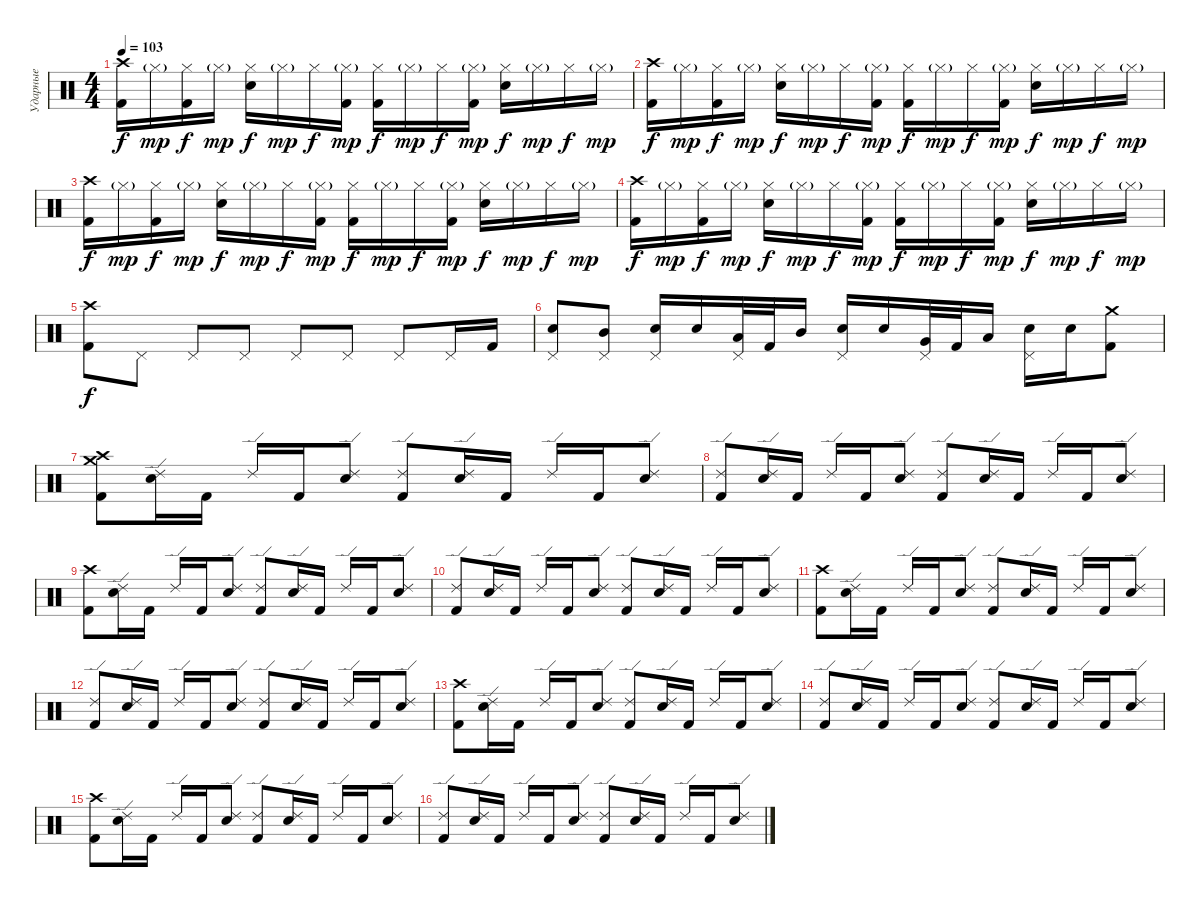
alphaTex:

\track ("Ударные" "Ударные") {instrument percussion}
\staff {score}
\articulation defaults
\ts (4 4)
\tempo 103
\clef neutral
\ks c
("Kick (hit) 2" "Crash high (hit)").16{dy f} "Hi-Hat (closed)"{g}.16{dy mp} ("Kick (hit) 2" "Hi-Hat (closed)").16{dy f} "Hi-Hat (closed)"{g}.16{dy mp} ("Electric Snare (hit)" "Hi-Hat (closed)").16{dy f} "Hi-Hat (closed)"{g}.16{dy mp} "Hi-Hat (closed)".16{dy f} ("Kick (hit) 2" "Hi-Hat (closed)"{g}).16{dy mp} ("Kick (hit) 2" "Hi-Hat (closed)").16{dy f} "Hi-Hat (closed)"{g}.16{dy mp} "Hi-Hat (closed)".16{dy f} ("Kick (hit) 2" "Hi-Hat (closed)"{g}).16{dy mp} ("Electric Snare (hit)" "Hi-Hat (closed)").16{dy f} "Hi-Hat (closed)"{g}.16{dy mp} "Hi-Hat (closed)".16{dy f} "Hi-Hat (closed)"{g}.16{dy mp} |
("Kick (hit) 2" "Crash high (hit)").16{dy f} "Hi-Hat (closed)"{g}.16{dy mp} ("Kick (hit) 2" "Hi-Hat (closed)").16{dy f} "Hi-Hat (closed)"{g}.16{dy mp} ("Electric Snare (hit)" "Hi-Hat (closed)").16{dy f} "Hi-Hat (closed)"{g}.16{dy mp} "Hi-Hat (closed)".16{dy f} ("Kick (hit) 2" "Hi-Hat (closed)"{g}).16{dy mp} ("Kick (hit) 2" "Hi-Hat (closed)").16{dy f} "Hi-Hat (closed)"{g}.16{dy mp} "Hi-Hat (closed)".16{dy f} ("Kick (hit) 2" "Hi-Hat (closed)"{g}).16{dy mp} ("Electric Snare (hit)" "Hi-Hat (closed)").16{dy f} "Hi-Hat (closed)"{g}.16{dy mp} "Hi-Hat (closed)".16{dy f} "Hi-Hat (closed)"{g}.16{dy mp} |
("Kick (hit) 2" "Crash high (hit)").16{dy f} "Hi-Hat (closed)"{g}.16{dy mp} ("Kick (hit) 2" "Hi-Hat (closed)").16{dy f} "Hi-Hat (closed)"{g}.16{dy mp} ("Electric Snare (hit)" "Hi-Hat (closed)").16{dy f} "Hi-Hat (closed)"{g}.16{dy mp} "Hi-Hat (closed)".16{dy f} ("Kick (hit) 2" "Hi-Hat (closed)"{g}).16{dy mp} ("Kick (hit) 2" "Hi-Hat (closed)").16{dy f} "Hi-Hat (closed)"{g}.16{dy mp} "Hi-Hat (closed)".16{dy f} ("Kick (hit) 2" "Hi-Hat (closed)"{g}).16{dy mp} ("Electric Snare (hit)" "Hi-Hat (closed)").16{dy f} "Hi-Hat (closed)"{g}.16{dy mp} "Hi-Hat (closed)".16{dy f} "Hi-Hat (closed)"{g}.16{dy mp} |
("Kick (hit) 2" "Crash high (hit)").16{dy f} "Hi-Hat (closed)"{g}.16{dy mp} ("Kick (hit) 2" "Hi-Hat (closed)").16{dy f} "Hi-Hat (closed)"{g}.16{dy mp} ("Electric Snare (hit)" "Hi-Hat (closed)").16{dy f} "Hi-Hat (closed)"{g}.16{dy mp} "Hi-Hat (closed)".16{dy f} ("Kick (hit) 2" "Hi-Hat (closed)"{g}).16{dy mp} ("Kick (hit) 2" "Hi-Hat (closed)").16{dy f} "Hi-Hat (closed)"{g}.16{dy mp} "Hi-Hat (closed)".16{dy f} ("Kick (hit) 2" "Hi-Hat (closed)"{g}).16{dy mp} ("Electric Snare (hit)" "Hi-Hat (closed)").16{dy f} "Hi-Hat (closed)"{g}.16{dy mp} "Hi-Hat (closed)".16{dy f} "Hi-Hat (closed)"{g}.16{dy mp} |
("Kick (hit) 2" "Crash high (hit)").8{dy f} "Pedal Hi-Hat (hit)".8 "Pedal Hi-Hat (hit)".8 "Pedal Hi-Hat (hit)".8 "Pedal Hi-Hat (hit)".8 "Pedal Hi-Hat (hit)".8 "Pedal Hi-Hat (hit)".8 "Pedal Hi-Hat (hit)".16 "Kick (hit) 2".16 |
("Pedal Hi-Hat (hit)" "Electric Snare (hit)").8 ("Pedal Hi-Hat (hit)" "Mid Tom (hit)").8 ("Pedal Hi-Hat (hit)" "Electric Snare (hit)").16 "Electric Snare (hit)".16 ("Pedal Hi-Hat (hit)" "Low Tom (hit)").32 "Kick (hit) 2".32 "Mid Tom (hit)".16 ("Pedal Hi-Hat (hit)" "Electric Snare (hit)").16 "Electric Snare (hit)".16 ("Pedal Hi-Hat (hit)" "Very Low Tom (hit)").32 "Kick (hit) 2".32 "Low Tom (hit)".16 ("Pedal Hi-Hat (hit)" "Electric Snare (hit)").16 "Electric Snare (hit)".16 ("Kick (hit) 2" "Crash medium (hit)").8 |
("Kick (hit) 2" "Crash medium (hit)" "Crash high (hit)").8 ("Electric Snare (hit)" "Ride (edge) 2").16 "Kick (hit) 2".16 "Ride (edge) 2".16 "Kick (hit) 2".16 ("Electric Snare (hit)" "Ride (edge) 2").8 ("Kick (hit) 2" "Ride (edge) 2").8 ("Electric Snare (hit)" "Ride (edge) 2").16 "Kick (hit) 2".16 "Ride (edge) 2".16 "Kick (hit) 2".16 ("Electric Snare (hit)" "Ride (edge) 2").8 |
("Kick (hit) 2" "Ride (edge) 2").8 ("Electric Snare (hit)" "Ride (edge) 2").16 "Kick (hit) 2".16 "Ride (edge) 2".16 "Kick (hit) 2".16 ("Electric Snare (hit)" "Ride (edge) 2").8 ("Kick (hit) 2" "Ride (edge) 2").8 ("Electric Snare (hit)" "Ride (edge) 2").16 "Kick (hit) 2".16 "Ride (edge) 2".16 "Kick (hit) 2".16 ("Electric Snare (hit)" "Ride (edge) 2").8 |
("Kick (hit) 2" "Crash high (hit)").8 ("Electric Snare (hit)" "Ride (edge) 2").16 "Kick (hit) 2".16 "Ride (edge) 2".16 "Kick (hit) 2".16 ("Electric Snare (hit)" "Ride (edge) 2").8 ("Kick (hit) 2" "Ride (edge) 2").8 ("Electric Snare (hit)" "Ride (edge) 2").16 "Kick (hit) 2".16 "Ride (edge) 2".16 "Kick (hit) 2".16 ("Electric Snare (hit)" "Ride (edge) 2").8 |
("Kick (hit) 2" "Ride (edge) 2").8 ("Electric Snare (hit)" "Ride (edge) 2").16 "Kick (hit) 2".16 "Ride (edge) 2".16 "Kick (hit) 2".16 ("Electric Snare (hit)" "Ride (edge) 2").8 ("Kick (hit) 2" "Ride (edge) 2").8 ("Electric Snare (hit)" "Ride (edge) 2").16 "Kick (hit) 2".16 "Ride (edge) 2".16 "Kick (hit) 2".16 ("Electric Snare (hit)" "Ride (edge) 2").8 |
("Kick (hit) 2" "Crash high (hit)").8 ("Electric Snare (hit)" "Ride (edge) 2").16 "Kick (hit) 2".16 "Ride (edge) 2".16 "Kick (hit) 2".16 ("Electric Snare (hit)" "Ride (edge) 2").8 ("Kick (hit) 2" "Ride (edge) 2").8 ("Electric Snare (hit)" "Ride (edge) 2").16 "Kick (hit) 2".16 "Ride (edge) 2".16 "Kick (hit) 2".16 ("Electric Snare (hit)" "Ride (edge) 2").8 |
("Kick (hit) 2" "Ride (edge) 2").8 ("Electric Snare (hit)" "Ride (edge) 2").16 "Kick (hit) 2".16 "Ride (edge) 2".16 "Kick (hit) 2".16 ("Electric Snare (hit)" "Ride (edge) 2").8 ("Kick (hit) 2" "Ride (edge) 2").8 ("Electric Snare (hit)" "Ride (edge) 2").16 "Kick (hit) 2".16 "Ride (edge) 2".16 "Kick (hit) 2".16 ("Electric Snare (hit)" "Ride (edge) 2").8 |
("Kick (hit) 2" "Crash high (hit)").8 ("Electric Snare (hit)" "Ride (edge) 2").16 "Kick (hit) 2".16 "Ride (edge) 2".16 "Kick (hit) 2".16 ("Electric Snare (hit)" "Ride (edge) 2").8 ("Kick (hit) 2" "Ride (edge) 2").8 ("Electric Snare (hit)" "Ride (edge) 2").16 "Kick (hit) 2".16 "Ride (edge) 2".16 "Kick (hit) 2".16 ("Electric Snare (hit)" "Ride (edge) 2").8 |
("Kick (hit) 2" "Ride (edge) 2").8 ("Electric Snare (hit)" "Ride (edge) 2").16 "Kick (hit) 2".16 "Ride (edge) 2".16 "Kick (hit) 2".16 ("Electric Snare (hit)" "Ride (edge) 2").8 ("Kick (hit) 2" "Ride (edge) 2").8 ("Electric Snare (hit)" "Ride (edge) 2").16 "Kick (hit) 2".16 "Ride (edge) 2".16 "Kick (hit) 2".16 ("Electric Snare (hit)" "Ride (edge) 2").8 |
("Kick (hit) 2" "Crash high (hit)").8 ("Electric Snare (hit)" "Ride (edge) 2").16 "Kick (hit) 2".16 "Ride (edge) 2".16 "Kick (hit) 2".16 ("Electric Snare (hit)" "Ride (edge) 2").8 ("Kick (hit) 2" "Ride (edge) 2").8 ("Electric Snare (hit)" "Ride (edge) 2").16 "Kick (hit) 2".16 "Ride (edge) 2".16 "Kick (hit) 2".16 ("Electric Snare (hit)" "Ride (edge) 2").8 |
("Kick (hit) 2" "Ride (edge) 2").8 ("Electric Snare (hit)" "Ride (edge) 2").16 "Kick (hit) 2".16 "Ride (edge) 2".16 "Kick (hit) 2".16 ("Electric Snare (hit)" "Ride (edge) 2").8 ("Kick (hit) 2" "Ride (edge) 2").8 ("Electric Snare (hit)" "Ride (edge) 2").16 "Kick (hit) 2".16 "Ride (edge) 2".16 "Kick (hit) 2".16 ("Electric Snare (hit)" "Ride (edge) 2").8
